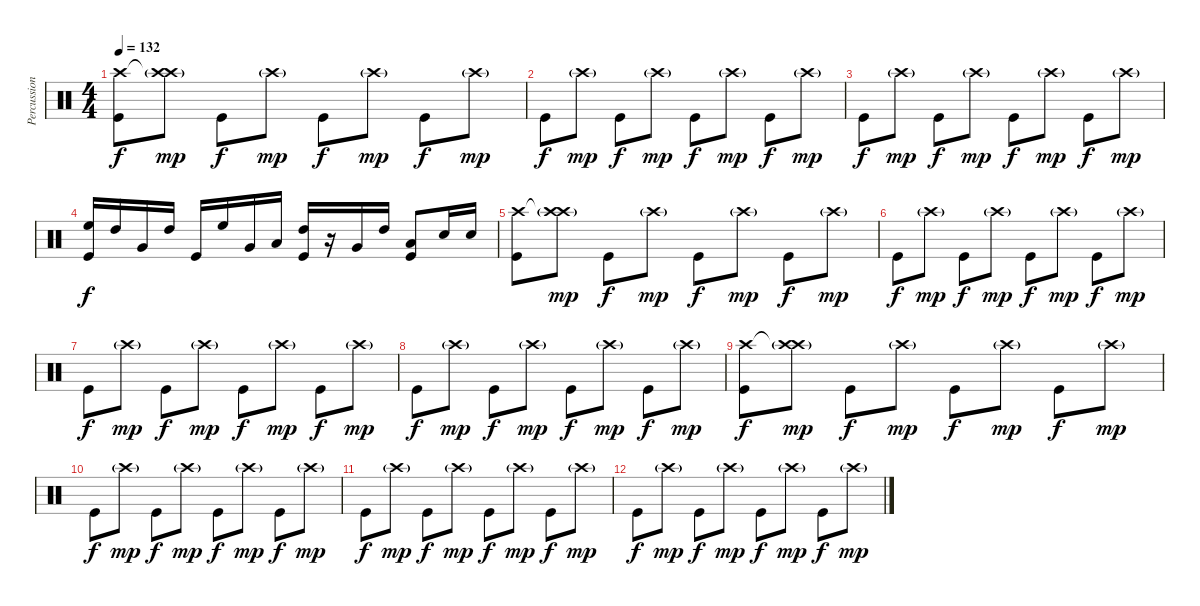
\track ("Percussion" "Percussion") {instrument percussion}
\staff {score}
\articulation defaults
\ts (4 4)
\tempo 132
\clef neutral
\ks c
("Crash high (hit)" "Kick (hit)").8{dy f} ("Crash high (hit)"{t} "Crash high (hit)"{g}).8{dy mp} "Kick (hit)".8{dy f} "Crash high (hit)"{g}.8{dy mp} "Kick (hit)".8{dy f} "Crash high (hit)"{g}.8{dy mp} "Kick (hit)".8{dy f} "Crash high (hit)"{g}.8{dy mp} |
"Kick (hit)".8{dy f} "Crash high (hit)"{g}.8{dy mp} "Kick (hit)".8{dy f} "Crash high (hit)"{g}.8{dy mp} "Kick (hit)".8{dy f} "Crash high (hit)"{g}.8{dy mp} "Kick (hit)".8{dy f} "Crash high (hit)"{g}.8{dy mp} |
"Kick (hit)".8{dy f} "Crash high (hit)"{g}.8{dy mp} "Kick (hit)".8{dy f} "Crash high (hit)"{g}.8{dy mp} "Kick (hit)".8{dy f} "Crash high (hit)"{g}.8{dy mp} "Kick (hit)".8{dy f} "Crash high (hit)"{g}.8{dy mp} |
("High Floor Tom (hit)" "Kick (hit)").16{dy f} "High Tom (hit)".16 "Very Low Tom (hit)".16 "High Tom (hit)".16 "Kick (hit)".16 "High Floor Tom (hit)".16 "Very Low Tom (hit)".16 "Low Floor Tom (hit)".16 ("High Tom (hit)" "Kick (hit)").16 r.16 "Very Low Tom (hit)".16 "High Tom (hit)".16 ("Low Floor Tom (hit)" "Kick (hit)").8 "Electric Snare (hit)".16 "Electric Snare (hit)".16 |
("Crash high (hit)" "Kick (hit)").8 ("Crash high (hit)"{t} "Crash high (hit)"{g}).8{dy mp} "Kick (hit)".8{dy f} "Crash high (hit)"{g}.8{dy mp} "Kick (hit)".8{dy f} "Crash high (hit)"{g}.8{dy mp} "Kick (hit)".8{dy f} "Crash high (hit)"{g}.8{dy mp} |
"Kick (hit)".8{dy f} "Crash high (hit)"{g}.8{dy mp} "Kick (hit)".8{dy f} "Crash high (hit)"{g}.8{dy mp} "Kick (hit)".8{dy f} "Crash high (hit)"{g}.8{dy mp} "Kick (hit)".8{dy f} "Crash high (hit)"{g}.8{dy mp} |
"Kick (hit)".8{dy f} "Crash high (hit)"{g}.8{dy mp} "Kick (hit)".8{dy f} "Crash high (hit)"{g}.8{dy mp} "Kick (hit)".8{dy f} "Crash high (hit)"{g}.8{dy mp} "Kick (hit)".8{dy f} "Crash high (hit)"{g}.8{dy mp} |
"Kick (hit)".8{dy f} "Crash high (hit)"{g}.8{dy mp} "Kick (hit)".8{dy f} "Crash high (hit)"{g}.8{dy mp} "Kick (hit)".8{dy f} "Crash high (hit)"{g}.8{dy mp} "Kick (hit)".8{dy f} "Crash high (hit)"{g}.8{dy mp} |
("Crash high (hit)" "Kick (hit)").8{dy f} ("Crash high (hit)"{t} "Crash high (hit)"{g}).8{dy mp} "Kick (hit)".8{dy f} "Crash high (hit)"{g}.8{dy mp} "Kick (hit)".8{dy f} "Crash high (hit)"{g}.8{dy mp} "Kick (hit)".8{dy f} "Crash high (hit)"{g}.8{dy mp} |
"Kick (hit)".8{dy f} "Crash high (hit)"{g}.8{dy mp} "Kick (hit)".8{dy f} "Crash high (hit)"{g}.8{dy mp} "Kick (hit)".8{dy f} "Crash high (hit)"{g}.8{dy mp} "Kick (hit)".8{dy f} "Crash high (hit)"{g}.8{dy mp} |
"Kick (hit)".8{dy f} "Crash high (hit)"{g}.8{dy mp} "Kick (hit)".8{dy f} "Crash high (hit)"{g}.8{dy mp} "Kick (hit)".8{dy f} "Crash high (hit)"{g}.8{dy mp} "Kick (hit)".8{dy f} "Crash high (hit)"{g}.8{dy mp} |
"Kick (hit)".8{dy f} "Crash high (hit)"{g}.8{dy mp} "Kick (hit)".8{dy f} "Crash high (hit)"{g}.8{dy mp} "Kick (hit)".8{dy f} "Crash high (hit)"{g}.8{dy mp} "Kick (hit)".8{dy f} "Crash high (hit)"{g}.8{dy mp}
